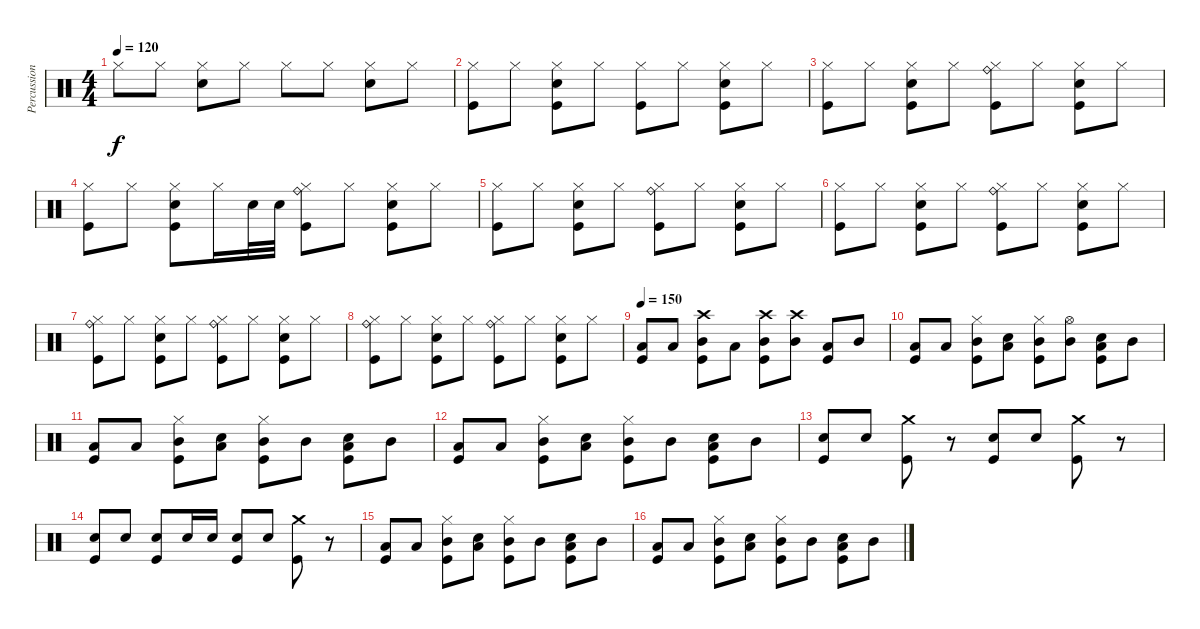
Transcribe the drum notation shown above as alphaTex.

\track ("Percussions" "Percussion") {instrument percussion}
\staff {score}
\articulation defaults
\ts (4 4)
\tempo 120
\clef neutral
\ks c "Hi-Hat (closed)".8{dy f} "Hi-Hat (closed)".8
("Hi-Hat (closed)" "Electric Snare (hit)").8 "Hi-Hat (closed)".8 "Hi-Hat (closed)".8 "Hi-Hat (closed)".8 ("Hi-Hat (closed)" "Electric Snare (hit)").8 "Hi-Hat (closed)".8 |
("Hi-Hat (closed)" "Kick (hit)").8 "Hi-Hat (closed)".8 ("Hi-Hat (closed)" "Electric Snare (hit)" "Kick (hit)").8 "Hi-Hat (closed)".8 ("Hi-Hat (closed)" "Kick (hit)").8 "Hi-Hat (closed)".8 ("Hi-Hat (closed)" "Electric Snare (hit)" "Kick (hit)").8 "Hi-Hat (closed)".8 |
("Hi-Hat (closed)" "Kick (hit)").8 "Hi-Hat (closed)".8 ("Hi-Hat (closed)" "Electric Snare (hit)" "Kick (hit)").8 "Hi-Hat (closed)".8 ("Hi-Hat (closed)" "Ride (bell)" "Kick (hit)").8 "Hi-Hat (closed)".8 ("Hi-Hat (closed)" "Electric Snare (hit)" "Kick (hit)").8 "Hi-Hat (closed)".8 |
("Hi-Hat (closed)" "Kick (hit)").8 "Hi-Hat (closed)".8 ("Hi-Hat (closed)" "Electric Snare (hit)" "Kick (hit)").8 "Hi-Hat (closed)".16 "Electric Snare (hit)".32 "Electric Snare (hit)".32 ("Hi-Hat (closed)" "Ride (bell)" "Kick (hit)").8 "Hi-Hat (closed)".8 ("Hi-Hat (closed)" "Electric Snare (hit)" "Kick (hit)").8 "Hi-Hat (closed)".8 |
("Hi-Hat (closed)" "Kick (hit)").8 "Hi-Hat (closed)".8 ("Hi-Hat (closed)" "Electric Snare (hit)" "Kick (hit)").8 "Hi-Hat (closed)".8 ("Hi-Hat (closed)" "Ride (bell)" "Kick (hit)").8 "Hi-Hat (closed)".8 ("Hi-Hat (closed)" "Electric Snare (hit)" "Kick (hit)").8 "Hi-Hat (closed)".8 |
("Hi-Hat (closed)" "Kick (hit)").8 "Hi-Hat (closed)".8 ("Hi-Hat (closed)" "Electric Snare (hit)" "Kick (hit)").8 "Hi-Hat (closed)".8 ("Hi-Hat (closed)" "Ride (bell)" "Kick (hit)").8 "Hi-Hat (closed)".8 ("Hi-Hat (closed)" "Electric Snare (hit)" "Kick (hit)").8 "Hi-Hat (closed)".8 |
("Hi-Hat (closed)" "Ride (bell)" "Kick (hit)").8 "Hi-Hat (closed)".8 ("Hi-Hat (closed)" "Electric Snare (hit)" "Kick (hit)").8 "Hi-Hat (closed)".8 ("Hi-Hat (closed)" "Ride (bell)" "Kick (hit)").8 "Hi-Hat (closed)".8 ("Hi-Hat (closed)" "Electric Snare (hit)" "Kick (hit)").8 "Hi-Hat (closed)".8 |
("Hi-Hat (closed)" "Ride (bell)" "Kick (hit)").8 "Hi-Hat (closed)".8 ("Hi-Hat (closed)" "Electric Snare (hit)" "Kick (hit)").8 "Hi-Hat (closed)".8 ("Hi-Hat (closed)" "Ride (bell)" "Kick (hit)").8 "Hi-Hat (closed)".8 ("Hi-Hat (closed)" "Electric Snare (hit)" "Kick (hit)").8 "Hi-Hat (closed)".8 |
\tempo 150
("Low Tom (hit)" "Kick (hit)").8 "Low Tom (hit)".8 ("Mid Tom (hit)" "Crash high (hit)" "Kick (hit)").8 "Low Tom (hit)".8 ("Mid Tom (hit)" "Crash high (hit)" "Kick (hit)").8 ("Mid Tom (hit)" "Crash high (hit)").8 ("Low Tom (hit)" "Kick (hit)").8 "Mid Tom (hit)".8 |
("Low Tom (hit)" "Kick (hit)").8 "Low Tom (hit)".8 ("Mid Tom (hit)" "Hi-Hat (closed)" "Kick (hit)").8 ("Low Tom (hit)" "Electric Snare (hit)").8 ("Mid Tom (hit)" "Hi-Hat (closed)" "Kick (hit)").8 ("Mid Tom (hit)" "Hi-Hat (open)").8 ("Low Tom (hit)" "Electric Snare (hit)" "Kick (hit)").8 "Mid Tom (hit)".8 |
("Low Tom (hit)" "Kick (hit)").8 "Low Tom (hit)".8 ("Mid Tom (hit)" "Hi-Hat (closed)" "Kick (hit)").8 ("Low Tom (hit)" "Electric Snare (hit)").8 ("Mid Tom (hit)" "Hi-Hat (closed)" "Kick (hit)").8 "Mid Tom (hit)".8 ("Low Tom (hit)" "Electric Snare (hit)" "Kick (hit)").8 "Mid Tom (hit)".8 |
("Low Tom (hit)" "Kick (hit)").8 "Low Tom (hit)".8 ("Mid Tom (hit)" "Hi-Hat (closed)" "Kick (hit)").8 ("Low Tom (hit)" "Electric Snare (hit)").8 ("Mid Tom (hit)" "Hi-Hat (closed)" "Kick (hit)").8 "Mid Tom (hit)".8 ("Low Tom (hit)" "Electric Snare (hit)" "Kick (hit)").8 "Mid Tom (hit)".8 |
("Electric Snare (hit)" "Kick (hit)").8 "Electric Snare (hit)".8 ("Crash medium (hit)" "Kick (hit)").8 r.8 ("Electric Snare (hit)" "Kick (hit)").8 "Electric Snare (hit)".8 ("Crash medium (hit)" "Kick (hit)").8 r.8 |
("Electric Snare (hit)" "Kick (hit)").8 "Electric Snare (hit)".8 ("Electric Snare (hit)" "Kick (hit)").8 "Electric Snare (hit)".16 "Electric Snare (hit)".16 ("Electric Snare (hit)" "Kick (hit)").8 "Electric Snare (hit)".8 ("Crash medium (hit)" "Kick (hit)").8 r.8 |
("Low Tom (hit)" "Kick (hit)").8 "Low Tom (hit)".8 ("Mid Tom (hit)" "Hi-Hat (closed)" "Kick (hit)").8 ("Low Tom (hit)" "Electric Snare (hit)").8 ("Mid Tom (hit)" "Hi-Hat (closed)" "Kick (hit)").8 "Mid Tom (hit)".8 ("Low Tom (hit)" "Electric Snare (hit)" "Kick (hit)").8 "Mid Tom (hit)".8 |
("Low Tom (hit)" "Kick (hit)").8 "Low Tom (hit)".8 ("Mid Tom (hit)" "Hi-Hat (closed)" "Kick (hit)").8 ("Low Tom (hit)" "Electric Snare (hit)").8 ("Mid Tom (hit)" "Hi-Hat (closed)" "Kick (hit)").8 "Mid Tom (hit)".8 ("Low Tom (hit)" "Electric Snare (hit)" "Kick (hit)").8 "Mid Tom (hit)".8
